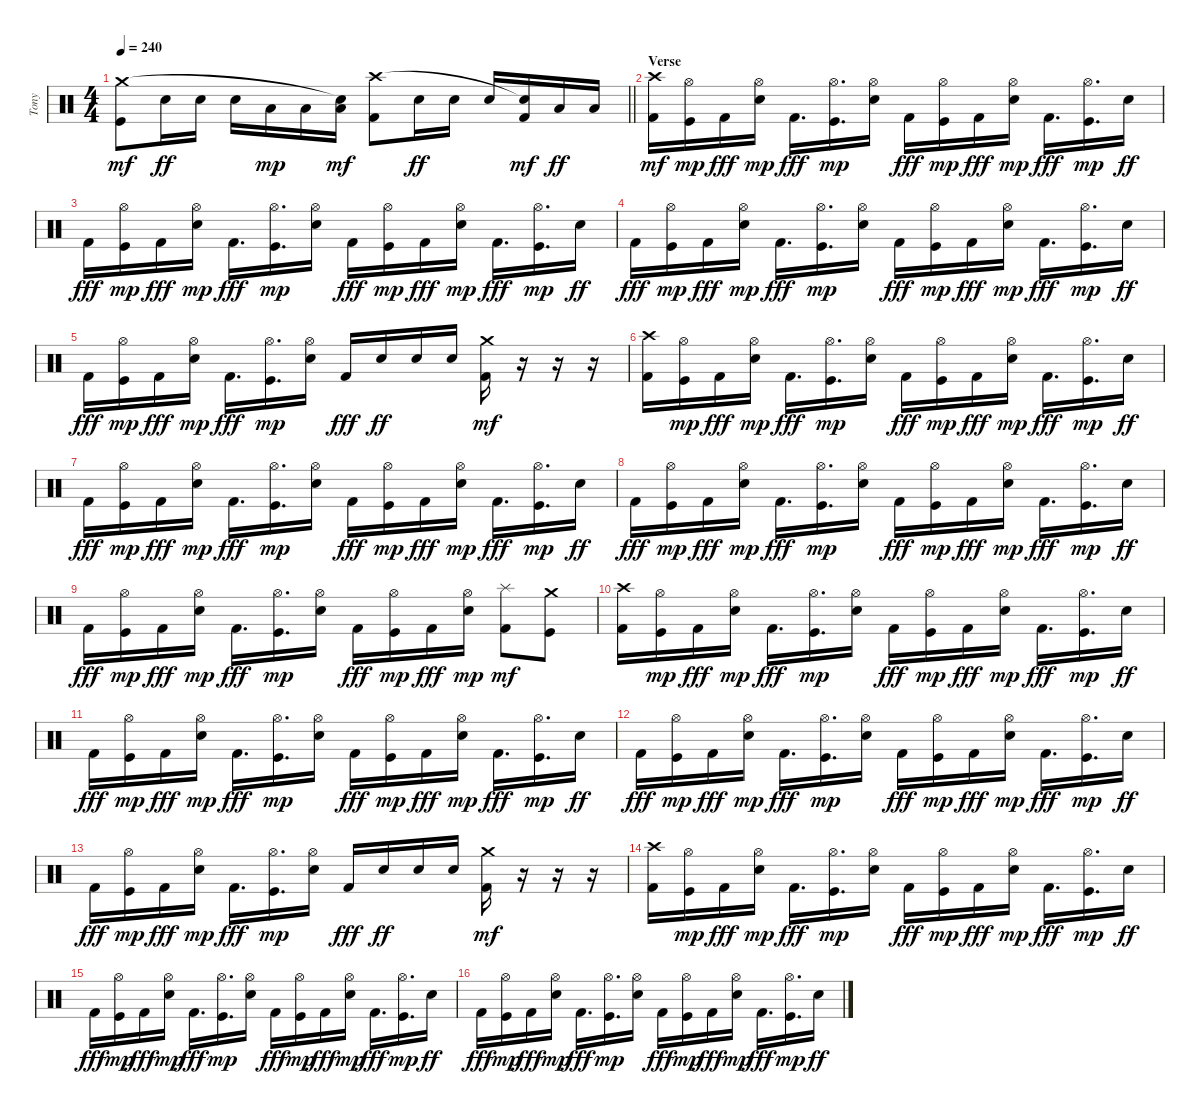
\track ("Tony" "Tony") {instrument percussion}
\staff {score}
\articulation defaults
\ts (4 4)
\tempo 240
\clef neutral
\barLineRight lightlight
\ks c
("Kick (hit)" "Crash medium (hit)").8{dy mf} "Snare (hit) 2".16{dy ff} "Snare (hit) 2".16 "Snare (hit) 2".16 "Low Tom (hit)".16{dy mp} "Low Tom (hit)".16 ("Low Tom (hit)" "Snare (hit)"{t}).16{dy mf} ("Kick (hit) 2" "Crash high (hit)").8 "Snare (hit) 2".16{dy ff} "Snare (hit) 2".16 "Snare (hit) 2".16 ("Kick (hit) 2" "Snare (hit)"{t}).16{dy mf} "Low Tom (hit)".16{dy ff} "Low Tom (hit)".16 |
\section ("" "Verse")
("Kick (hit) 2" "Crash high (hit)").16{dy mf} ("Kick (hit)" "Hi-Hat (open)").16{dy mp} "Kick (hit) 2".16{dy fff} ("Snare (hit) 2" "Hi-Hat (open)").16{dy mp} "Kick (hit) 2".16{d dy fff} ("Kick (hit)" "Hi-Hat (open)").16{d dy mp} ("Snare (hit) 2" "Hi-Hat (open)").16 "Kick (hit) 2".16{dy fff} ("Kick (hit)" "Hi-Hat (open)").16{dy mp} "Kick (hit) 2".16{dy fff} ("Snare (hit) 2" "Hi-Hat (open)").16{dy mp} "Kick (hit) 2".16{d dy fff} ("Kick (hit)" "Hi-Hat (open)").16{d dy mp} "Snare (hit) 2".16{dy ff} |
"Kick (hit) 2".16{dy fff} ("Kick (hit)" "Hi-Hat (open)").16{dy mp} "Kick (hit) 2".16{dy fff} ("Snare (hit) 2" "Hi-Hat (open)").16{dy mp} "Kick (hit) 2".16{d dy fff} ("Kick (hit)" "Hi-Hat (open)").16{d dy mp} ("Snare (hit) 2" "Hi-Hat (open)").16 "Kick (hit) 2".16{dy fff} ("Kick (hit)" "Hi-Hat (open)").16{dy mp} "Kick (hit) 2".16{dy fff} ("Snare (hit) 2" "Hi-Hat (open)").16{dy mp} "Kick (hit) 2".16{d dy fff} ("Kick (hit)" "Hi-Hat (open)").16{d dy mp} "Snare (hit) 2".16{dy ff} |
"Kick (hit) 2".16{dy fff} ("Kick (hit)" "Hi-Hat (open)").16{dy mp} "Kick (hit) 2".16{dy fff} ("Snare (hit) 2" "Hi-Hat (open)").16{dy mp} "Kick (hit) 2".16{d dy fff} ("Kick (hit)" "Hi-Hat (open)").16{d dy mp} ("Snare (hit) 2" "Hi-Hat (open)").16 "Kick (hit) 2".16{dy fff} ("Kick (hit)" "Hi-Hat (open)").16{dy mp} "Kick (hit) 2".16{dy fff} ("Snare (hit) 2" "Hi-Hat (open)").16{dy mp} "Kick (hit) 2".16{d dy fff} ("Kick (hit)" "Hi-Hat (open)").16{d dy mp} "Snare (hit) 2".16{dy ff} |
"Kick (hit) 2".16{dy fff} ("Kick (hit)" "Hi-Hat (open)").16{dy mp} "Kick (hit) 2".16{dy fff} ("Snare (hit) 2" "Hi-Hat (open)").16{dy mp} "Kick (hit) 2".16{d dy fff} ("Kick (hit)" "Hi-Hat (open)").16{d dy mp} ("Snare (hit) 2" "Hi-Hat (open)").16 "Kick (hit) 2".16{dy fff} "Snare (hit) 2".16{dy ff} "Snare (hit) 2".16 "Snare (hit) 2".16 ("Kick (hit) 2" "Crash medium (hit)").16{dy mf} r.16 r.16 r.16 |
("Kick (hit) 2" "Crash high (hit)").16 ("Kick (hit)" "Hi-Hat (open)").16{dy mp} "Kick (hit) 2".16{dy fff} ("Snare (hit) 2" "Hi-Hat (open)").16{dy mp} "Kick (hit) 2".16{d dy fff} ("Kick (hit)" "Hi-Hat (open)").16{d dy mp} ("Snare (hit) 2" "Hi-Hat (open)").16 "Kick (hit) 2".16{dy fff} ("Kick (hit)" "Hi-Hat (open)").16{dy mp} "Kick (hit) 2".16{dy fff} ("Snare (hit) 2" "Hi-Hat (open)").16{dy mp} "Kick (hit) 2".16{d dy fff} ("Kick (hit)" "Hi-Hat (open)").16{d dy mp} "Snare (hit) 2".16{dy ff} |
"Kick (hit) 2".16{dy fff} ("Kick (hit)" "Hi-Hat (open)").16{dy mp} "Kick (hit) 2".16{dy fff} ("Snare (hit) 2" "Hi-Hat (open)").16{dy mp} "Kick (hit) 2".16{d dy fff} ("Kick (hit)" "Hi-Hat (open)").16{d dy mp} ("Snare (hit) 2" "Hi-Hat (open)").16 "Kick (hit) 2".16{dy fff} ("Kick (hit)" "Hi-Hat (open)").16{dy mp} "Kick (hit) 2".16{dy fff} ("Snare (hit) 2" "Hi-Hat (open)").16{dy mp} "Kick (hit) 2".16{d dy fff} ("Kick (hit)" "Hi-Hat (open)").16{d dy mp} "Snare (hit) 2".16{dy ff} |
"Kick (hit) 2".16{dy fff} ("Kick (hit)" "Hi-Hat (open)").16{dy mp} "Kick (hit) 2".16{dy fff} ("Snare (hit) 2" "Hi-Hat (open)").16{dy mp} "Kick (hit) 2".16{d dy fff} ("Kick (hit)" "Hi-Hat (open)").16{d dy mp} ("Snare (hit) 2" "Hi-Hat (open)").16 "Kick (hit) 2".16{dy fff} ("Kick (hit)" "Hi-Hat (open)").16{dy mp} "Kick (hit) 2".16{dy fff} ("Snare (hit) 2" "Hi-Hat (open)").16{dy mp} "Kick (hit) 2".16{d dy fff} ("Kick (hit)" "Hi-Hat (open)").16{d dy mp} "Snare (hit) 2".16{dy ff} |
"Kick (hit) 2".16{dy fff} ("Kick (hit)" "Hi-Hat (open)").16{dy mp} "Kick (hit) 2".16{dy fff} ("Snare (hit) 2" "Hi-Hat (open)").16{dy mp} "Kick (hit) 2".16{d dy fff} ("Kick (hit)" "Hi-Hat (open)").16{d dy mp} ("Snare (hit) 2" "Hi-Hat (open)").16 "Kick (hit) 2".16{dy fff} ("Kick (hit)" "Hi-Hat (open)").16{dy mp} "Kick (hit) 2".16{dy fff} ("Snare (hit) 2" "Hi-Hat (open)").16{dy mp} ("Kick (hit) 2" "Splash (hit)").8{dy mf} ("Kick (hit)" "Crash medium (hit)").8 |
("Kick (hit) 2" "Crash high (hit)").16 ("Kick (hit)" "Hi-Hat (open)").16{dy mp} "Kick (hit) 2".16{dy fff} ("Snare (hit) 2" "Hi-Hat (open)").16{dy mp} "Kick (hit) 2".16{d dy fff} ("Kick (hit)" "Hi-Hat (open)").16{d dy mp} ("Snare (hit) 2" "Hi-Hat (open)").16 "Kick (hit) 2".16{dy fff} ("Kick (hit)" "Hi-Hat (open)").16{dy mp} "Kick (hit) 2".16{dy fff} ("Snare (hit) 2" "Hi-Hat (open)").16{dy mp} "Kick (hit) 2".16{d dy fff} ("Kick (hit)" "Hi-Hat (open)").16{d dy mp} "Snare (hit) 2".16{dy ff} |
"Kick (hit) 2".16{dy fff} ("Kick (hit)" "Hi-Hat (open)").16{dy mp} "Kick (hit) 2".16{dy fff} ("Snare (hit) 2" "Hi-Hat (open)").16{dy mp} "Kick (hit) 2".16{d dy fff} ("Kick (hit)" "Hi-Hat (open)").16{d dy mp} ("Snare (hit) 2" "Hi-Hat (open)").16 "Kick (hit) 2".16{dy fff} ("Kick (hit)" "Hi-Hat (open)").16{dy mp} "Kick (hit) 2".16{dy fff} ("Snare (hit) 2" "Hi-Hat (open)").16{dy mp} "Kick (hit) 2".16{d dy fff} ("Kick (hit)" "Hi-Hat (open)").16{d dy mp} "Snare (hit) 2".16{dy ff} |
"Kick (hit) 2".16{dy fff} ("Kick (hit)" "Hi-Hat (open)").16{dy mp} "Kick (hit) 2".16{dy fff} ("Snare (hit) 2" "Hi-Hat (open)").16{dy mp} "Kick (hit) 2".16{d dy fff} ("Kick (hit)" "Hi-Hat (open)").16{d dy mp} ("Snare (hit) 2" "Hi-Hat (open)").16 "Kick (hit) 2".16{dy fff} ("Kick (hit)" "Hi-Hat (open)").16{dy mp} "Kick (hit) 2".16{dy fff} ("Snare (hit) 2" "Hi-Hat (open)").16{dy mp} "Kick (hit) 2".16{d dy fff} ("Kick (hit)" "Hi-Hat (open)").16{d dy mp} "Snare (hit) 2".16{dy ff} |
"Kick (hit) 2".16{dy fff} ("Kick (hit)" "Hi-Hat (open)").16{dy mp} "Kick (hit) 2".16{dy fff} ("Snare (hit) 2" "Hi-Hat (open)").16{dy mp} "Kick (hit) 2".16{d dy fff} ("Kick (hit)" "Hi-Hat (open)").16{d dy mp} ("Snare (hit) 2" "Hi-Hat (open)").16 "Kick (hit) 2".16{dy fff} "Snare (hit) 2".16{dy ff} "Snare (hit) 2".16 "Snare (hit) 2".16 ("Kick (hit) 2" "Crash medium (hit)").16{dy mf} r.16 r.16 r.16 |
("Kick (hit) 2" "Crash high (hit)").16 ("Kick (hit)" "Hi-Hat (open)").16{dy mp} "Kick (hit) 2".16{dy fff} ("Snare (hit) 2" "Hi-Hat (open)").16{dy mp} "Kick (hit) 2".16{d dy fff} ("Kick (hit)" "Hi-Hat (open)").16{d dy mp} ("Snare (hit) 2" "Hi-Hat (open)").16 "Kick (hit) 2".16{dy fff} ("Kick (hit)" "Hi-Hat (open)").16{dy mp} "Kick (hit) 2".16{dy fff} ("Snare (hit) 2" "Hi-Hat (open)").16{dy mp} "Kick (hit) 2".16{d dy fff} ("Kick (hit)" "Hi-Hat (open)").16{d dy mp} "Snare (hit) 2".16{dy ff} |
"Kick (hit) 2".16{dy fff} ("Kick (hit)" "Hi-Hat (open)").16{dy mp} "Kick (hit) 2".16{dy fff} ("Snare (hit) 2" "Hi-Hat (open)").16{dy mp} "Kick (hit) 2".16{d dy fff} ("Kick (hit)" "Hi-Hat (open)").16{d dy mp} ("Snare (hit) 2" "Hi-Hat (open)").16 "Kick (hit) 2".16{dy fff} ("Kick (hit)" "Hi-Hat (open)").16{dy mp} "Kick (hit) 2".16{dy fff} ("Snare (hit) 2" "Hi-Hat (open)").16{dy mp} "Kick (hit) 2".16{d dy fff} ("Kick (hit)" "Hi-Hat (open)").16{d dy mp} "Snare (hit) 2".16{dy ff} |
"Kick (hit) 2".16{dy fff} ("Kick (hit)" "Hi-Hat (open)").16{dy mp} "Kick (hit) 2".16{dy fff} ("Snare (hit) 2" "Hi-Hat (open)").16{dy mp} "Kick (hit) 2".16{d dy fff} ("Kick (hit)" "Hi-Hat (open)").16{d dy mp} ("Snare (hit) 2" "Hi-Hat (open)").16 "Kick (hit) 2".16{dy fff} ("Kick (hit)" "Hi-Hat (open)").16{dy mp} "Kick (hit) 2".16{dy fff} ("Snare (hit) 2" "Hi-Hat (open)").16{dy mp} "Kick (hit) 2".16{d dy fff} ("Kick (hit)" "Hi-Hat (open)").16{d dy mp} "Snare (hit) 2".16{dy ff}
